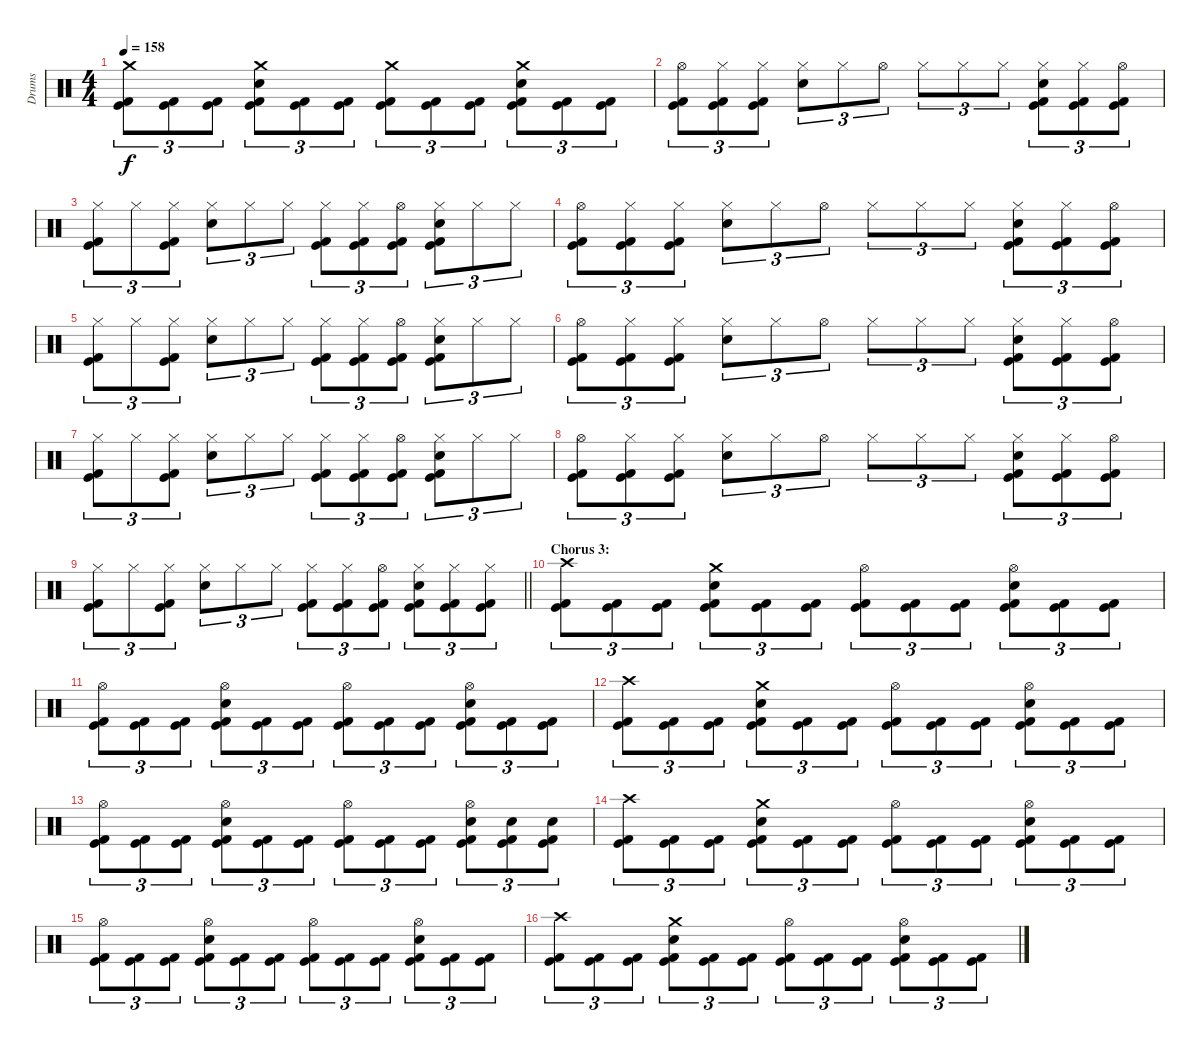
\track ("Drums" "Drums") {instrument percussion}
\staff {score}
\articulation defaults
\ts (4 4)
\tempo 158
\clef neutral
\ks c
("Crash medium (hit)" "Kick (hit)" "Kick (hit) 2").8{tu (3 2) dy f} ("Kick (hit)" "Kick (hit) 2").8{tu (3 2)} ("Kick (hit)" "Kick (hit) 2").8{tu (3 2)} ("Crash medium (hit)" "Snare (hit) 2" "Kick (hit)" "Kick (hit) 2").8{tu (3 2)} ("Kick (hit)" "Kick (hit) 2").8{tu (3 2)} ("Kick (hit)" "Kick (hit) 2").8{tu (3 2)} ("Crash medium (hit)" "Kick (hit)" "Kick (hit) 2").8{tu (3 2)} ("Kick (hit)" "Kick (hit) 2").8{tu (3 2)} ("Kick (hit)" "Kick (hit) 2").8{tu (3 2)} ("Crash medium (hit)" "Snare (hit) 2" "Kick (hit)" "Kick (hit) 2").8{tu (3 2)} ("Kick (hit)" "Kick (hit) 2").8{tu (3 2)} ("Kick (hit)" "Kick (hit) 2").8{tu (3 2)} |
("Hi-Hat (open)" "Kick (hit)" "Kick (hit) 2").8{tu (3 2)} ("Hi-Hat (closed)" "Kick (hit)" "Kick (hit) 2").8{tu (3 2)} ("Hi-Hat (closed)" "Kick (hit)" "Kick (hit) 2").8{tu (3 2)} ("Hi-Hat (closed)" "Snare (hit) 2").8{tu (3 2)} "Hi-Hat (closed)".8{tu (3 2)} "Hi-Hat (open)".8{tu (3 2)} "Hi-Hat (closed)".8{tu (3 2)} "Hi-Hat (closed)".8{tu (3 2)} "Hi-Hat (closed)".8{tu (3 2)} ("Hi-Hat (closed)" "Snare (hit) 2" "Kick (hit)" "Kick (hit) 2").8{tu (3 2)} ("Hi-Hat (closed)" "Kick (hit)" "Kick (hit) 2").8{tu (3 2)} ("Hi-Hat (open)" "Kick (hit)" "Kick (hit) 2").8{tu (3 2)} |
("Hi-Hat (closed)" "Kick (hit)" "Kick (hit) 2").8{tu (3 2)} "Hi-Hat (closed)".8{tu (3 2)} ("Hi-Hat (closed)" "Kick (hit)" "Kick (hit) 2").8{tu (3 2)} ("Hi-Hat (closed)" "Snare (hit) 2").8{tu (3 2)} "Hi-Hat (closed)".8{tu (3 2)} "Hi-Hat (closed)".8{tu (3 2)} ("Hi-Hat (closed)" "Kick (hit)" "Kick (hit) 2").8{tu (3 2)} ("Hi-Hat (closed)" "Kick (hit)" "Kick (hit) 2").8{tu (3 2)} ("Hi-Hat (open)" "Kick (hit)" "Kick (hit) 2").8{tu (3 2)} ("Hi-Hat (closed)" "Snare (hit) 2" "Kick (hit)" "Kick (hit) 2").8{tu (3 2)} "Hi-Hat (closed)".8{tu (3 2)} "Hi-Hat (closed)".8{tu (3 2)} |
("Hi-Hat (open)" "Kick (hit)" "Kick (hit) 2").8{tu (3 2)} ("Hi-Hat (closed)" "Kick (hit)" "Kick (hit) 2").8{tu (3 2)} ("Hi-Hat (closed)" "Kick (hit)" "Kick (hit) 2").8{tu (3 2)} ("Hi-Hat (closed)" "Snare (hit) 2").8{tu (3 2)} "Hi-Hat (closed)".8{tu (3 2)} "Hi-Hat (open)".8{tu (3 2)} "Hi-Hat (closed)".8{tu (3 2)} "Hi-Hat (closed)".8{tu (3 2)} "Hi-Hat (closed)".8{tu (3 2)} ("Hi-Hat (closed)" "Snare (hit) 2" "Kick (hit)" "Kick (hit) 2").8{tu (3 2)} ("Hi-Hat (closed)" "Kick (hit)" "Kick (hit) 2").8{tu (3 2)} ("Hi-Hat (open)" "Kick (hit)" "Kick (hit) 2").8{tu (3 2)} |
("Hi-Hat (closed)" "Kick (hit)" "Kick (hit) 2").8{tu (3 2)} "Hi-Hat (closed)".8{tu (3 2)} ("Hi-Hat (closed)" "Kick (hit)" "Kick (hit) 2").8{tu (3 2)} ("Hi-Hat (closed)" "Snare (hit) 2").8{tu (3 2)} "Hi-Hat (closed)".8{tu (3 2)} "Hi-Hat (closed)".8{tu (3 2)} ("Hi-Hat (closed)" "Kick (hit)" "Kick (hit) 2").8{tu (3 2)} ("Hi-Hat (closed)" "Kick (hit)" "Kick (hit) 2").8{tu (3 2)} ("Hi-Hat (open)" "Kick (hit)" "Kick (hit) 2").8{tu (3 2)} ("Hi-Hat (closed)" "Snare (hit) 2" "Kick (hit)" "Kick (hit) 2").8{tu (3 2)} "Hi-Hat (closed)".8{tu (3 2)} "Hi-Hat (closed)".8{tu (3 2)} |
("Hi-Hat (open)" "Kick (hit)" "Kick (hit) 2").8{tu (3 2)} ("Hi-Hat (closed)" "Kick (hit)" "Kick (hit) 2").8{tu (3 2)} ("Hi-Hat (closed)" "Kick (hit)" "Kick (hit) 2").8{tu (3 2)} ("Hi-Hat (closed)" "Snare (hit) 2").8{tu (3 2)} "Hi-Hat (closed)".8{tu (3 2)} "Hi-Hat (open)".8{tu (3 2)} "Hi-Hat (closed)".8{tu (3 2)} "Hi-Hat (closed)".8{tu (3 2)} "Hi-Hat (closed)".8{tu (3 2)} ("Hi-Hat (closed)" "Snare (hit) 2" "Kick (hit)" "Kick (hit) 2").8{tu (3 2)} ("Hi-Hat (closed)" "Kick (hit)" "Kick (hit) 2").8{tu (3 2)} ("Hi-Hat (open)" "Kick (hit)" "Kick (hit) 2").8{tu (3 2)} |
("Hi-Hat (closed)" "Kick (hit)" "Kick (hit) 2").8{tu (3 2)} "Hi-Hat (closed)".8{tu (3 2)} ("Hi-Hat (closed)" "Kick (hit)" "Kick (hit) 2").8{tu (3 2)} ("Hi-Hat (closed)" "Snare (hit) 2").8{tu (3 2)} "Hi-Hat (closed)".8{tu (3 2)} "Hi-Hat (closed)".8{tu (3 2)} ("Hi-Hat (closed)" "Kick (hit)" "Kick (hit) 2").8{tu (3 2)} ("Hi-Hat (closed)" "Kick (hit)" "Kick (hit) 2").8{tu (3 2)} ("Hi-Hat (open)" "Kick (hit)" "Kick (hit) 2").8{tu (3 2)} ("Hi-Hat (closed)" "Snare (hit) 2" "Kick (hit)" "Kick (hit) 2").8{tu (3 2)} "Hi-Hat (closed)".8{tu (3 2)} "Hi-Hat (closed)".8{tu (3 2)} |
("Hi-Hat (open)" "Kick (hit)" "Kick (hit) 2").8{tu (3 2)} ("Hi-Hat (closed)" "Kick (hit)" "Kick (hit) 2").8{tu (3 2)} ("Hi-Hat (closed)" "Kick (hit)" "Kick (hit) 2").8{tu (3 2)} ("Hi-Hat (closed)" "Snare (hit) 2").8{tu (3 2)} "Hi-Hat (closed)".8{tu (3 2)} "Hi-Hat (open)".8{tu (3 2)} "Hi-Hat (closed)".8{tu (3 2)} "Hi-Hat (closed)".8{tu (3 2)} "Hi-Hat (closed)".8{tu (3 2)} ("Hi-Hat (closed)" "Snare (hit) 2" "Kick (hit)" "Kick (hit) 2").8{tu (3 2)} ("Hi-Hat (closed)" "Kick (hit)" "Kick (hit) 2").8{tu (3 2)} ("Hi-Hat (open)" "Kick (hit)" "Kick (hit) 2").8{tu (3 2)} |
\barLineRight lightlight
("Hi-Hat (closed)" "Kick (hit)" "Kick (hit) 2").8{tu (3 2)} "Hi-Hat (closed)".8{tu (3 2)} ("Hi-Hat (closed)" "Kick (hit)" "Kick (hit) 2").8{tu (3 2)} ("Hi-Hat (closed)" "Snare (hit) 2").8{tu (3 2)} "Hi-Hat (closed)".8{tu (3 2)} "Hi-Hat (closed)".8{tu (3 2)} ("Hi-Hat (closed)" "Kick (hit)" "Kick (hit) 2").8{tu (3 2)} ("Hi-Hat (closed)" "Kick (hit)" "Kick (hit) 2").8{tu (3 2)} ("Hi-Hat (open)" "Kick (hit)" "Kick (hit) 2").8{tu (3 2)} ("Hi-Hat (closed)" "Snare (hit) 2" "Kick (hit)" "Kick (hit) 2").8{tu (3 2)} ("Hi-Hat (closed)" "Kick (hit)" "Kick (hit) 2").8{tu (3 2)} ("Hi-Hat (closed)" "Kick (hit)" "Kick (hit) 2").8{tu (3 2)} |
\section ("" "Chorus 3:")
("Crash high (hit)" "Kick (hit)" "Kick (hit) 2").8{tu (3 2)} ("Kick (hit)" "Kick (hit) 2").8{tu (3 2)} ("Kick (hit)" "Kick (hit) 2").8{tu (3 2)} ("Crash medium (hit)" "Snare (hit) 2" "Kick (hit)" "Kick (hit) 2").8{tu (3 2)} ("Kick (hit)" "Kick (hit) 2").8{tu (3 2)} ("Kick (hit)" "Kick (hit) 2").8{tu (3 2)} ("Hi-Hat (open)" "Kick (hit)" "Kick (hit) 2").8{tu (3 2)} ("Kick (hit)" "Kick (hit) 2").8{tu (3 2)} ("Kick (hit)" "Kick (hit) 2").8{tu (3 2)} ("Hi-Hat (open)" "Snare (hit) 2" "Kick (hit)" "Kick (hit) 2").8{tu (3 2)} ("Kick (hit)" "Kick (hit) 2").8{tu (3 2)} ("Kick (hit)" "Kick (hit) 2").8{tu (3 2)} |
("Hi-Hat (open)" "Kick (hit)" "Kick (hit) 2").8{tu (3 2)} ("Kick (hit)" "Kick (hit) 2").8{tu (3 2)} ("Kick (hit)" "Kick (hit) 2").8{tu (3 2)} ("Hi-Hat (open)" "Snare (hit) 2" "Kick (hit)" "Kick (hit) 2").8{tu (3 2)} ("Kick (hit)" "Kick (hit) 2").8{tu (3 2)} ("Kick (hit)" "Kick (hit) 2").8{tu (3 2)} ("Hi-Hat (open)" "Kick (hit)" "Kick (hit) 2").8{tu (3 2)} ("Kick (hit)" "Kick (hit) 2").8{tu (3 2)} ("Kick (hit)" "Kick (hit) 2").8{tu (3 2)} ("Hi-Hat (open)" "Snare (hit) 2" "Kick (hit)" "Kick (hit) 2").8{tu (3 2)} ("Kick (hit)" "Kick (hit) 2").8{tu (3 2)} ("Kick (hit)" "Kick (hit) 2").8{tu (3 2)} |
("Crash high (hit)" "Kick (hit)" "Kick (hit) 2").8{tu (3 2)} ("Kick (hit)" "Kick (hit) 2").8{tu (3 2)} ("Kick (hit)" "Kick (hit) 2").8{tu (3 2)} ("Crash medium (hit)" "Snare (hit) 2" "Kick (hit)" "Kick (hit) 2").8{tu (3 2)} ("Kick (hit)" "Kick (hit) 2").8{tu (3 2)} ("Kick (hit)" "Kick (hit) 2").8{tu (3 2)} ("Hi-Hat (open)" "Kick (hit)" "Kick (hit) 2").8{tu (3 2)} ("Kick (hit)" "Kick (hit) 2").8{tu (3 2)} ("Kick (hit)" "Kick (hit) 2").8{tu (3 2)} ("Hi-Hat (open)" "Snare (hit) 2" "Kick (hit)" "Kick (hit) 2").8{tu (3 2)} ("Kick (hit)" "Kick (hit) 2").8{tu (3 2)} ("Kick (hit)" "Kick (hit) 2").8{tu (3 2)} |
("Hi-Hat (open)" "Kick (hit)" "Kick (hit) 2").8{tu (3 2)} ("Kick (hit)" "Kick (hit) 2").8{tu (3 2)} ("Kick (hit)" "Kick (hit) 2").8{tu (3 2)} ("Hi-Hat (open)" "Snare (hit) 2" "Kick (hit)" "Kick (hit) 2").8{tu (3 2)} ("Kick (hit)" "Kick (hit) 2").8{tu (3 2)} ("Kick (hit)" "Kick (hit) 2").8{tu (3 2)} ("Hi-Hat (open)" "Kick (hit)" "Kick (hit) 2").8{tu (3 2)} ("Kick (hit)" "Kick (hit) 2").8{tu (3 2)} ("Kick (hit)" "Kick (hit) 2").8{tu (3 2)} ("Hi-Hat (open)" "Snare (hit) 2" "Kick (hit)" "Kick (hit) 2").8{tu (3 2)} ("Snare (hit) 2" "Kick (hit)" "Kick (hit) 2").8{tu (3 2)} ("Snare (hit) 2" "Kick (hit)" "Kick (hit) 2").8{tu (3 2)} |
("Crash high (hit)" "Kick (hit)" "Kick (hit) 2").8{tu (3 2)} ("Kick (hit)" "Kick (hit) 2").8{tu (3 2)} ("Kick (hit)" "Kick (hit) 2").8{tu (3 2)} ("Crash medium (hit)" "Snare (hit) 2" "Kick (hit)" "Kick (hit) 2").8{tu (3 2)} ("Kick (hit)" "Kick (hit) 2").8{tu (3 2)} ("Kick (hit)" "Kick (hit) 2").8{tu (3 2)} ("Hi-Hat (open)" "Kick (hit)" "Kick (hit) 2").8{tu (3 2)} ("Kick (hit)" "Kick (hit) 2").8{tu (3 2)} ("Kick (hit)" "Kick (hit) 2").8{tu (3 2)} ("Hi-Hat (open)" "Snare (hit) 2" "Kick (hit)" "Kick (hit) 2").8{tu (3 2)} ("Kick (hit)" "Kick (hit) 2").8{tu (3 2)} ("Kick (hit)" "Kick (hit) 2").8{tu (3 2)} |
("Hi-Hat (open)" "Kick (hit)" "Kick (hit) 2").8{tu (3 2)} ("Kick (hit)" "Kick (hit) 2").8{tu (3 2)} ("Kick (hit)" "Kick (hit) 2").8{tu (3 2)} ("Hi-Hat (open)" "Snare (hit) 2" "Kick (hit)" "Kick (hit) 2").8{tu (3 2)} ("Kick (hit)" "Kick (hit) 2").8{tu (3 2)} ("Kick (hit)" "Kick (hit) 2").8{tu (3 2)} ("Hi-Hat (open)" "Kick (hit)" "Kick (hit) 2").8{tu (3 2)} ("Kick (hit)" "Kick (hit) 2").8{tu (3 2)} ("Kick (hit)" "Kick (hit) 2").8{tu (3 2)} ("Hi-Hat (open)" "Snare (hit) 2" "Kick (hit)" "Kick (hit) 2").8{tu (3 2)} ("Kick (hit)" "Kick (hit) 2").8{tu (3 2)} ("Kick (hit)" "Kick (hit) 2").8{tu (3 2)} |
("Crash high (hit)" "Kick (hit)" "Kick (hit) 2").8{tu (3 2)} ("Kick (hit)" "Kick (hit) 2").8{tu (3 2)} ("Kick (hit)" "Kick (hit) 2").8{tu (3 2)} ("Crash medium (hit)" "Snare (hit) 2" "Kick (hit)" "Kick (hit) 2").8{tu (3 2)} ("Kick (hit)" "Kick (hit) 2").8{tu (3 2)} ("Kick (hit)" "Kick (hit) 2").8{tu (3 2)} ("Hi-Hat (open)" "Kick (hit)" "Kick (hit) 2").8{tu (3 2)} ("Kick (hit)" "Kick (hit) 2").8{tu (3 2)} ("Kick (hit)" "Kick (hit) 2").8{tu (3 2)} ("Hi-Hat (open)" "Snare (hit) 2" "Kick (hit)" "Kick (hit) 2").8{tu (3 2)} ("Kick (hit)" "Kick (hit) 2").8{tu (3 2)} ("Kick (hit)" "Kick (hit) 2").8{tu (3 2)}
